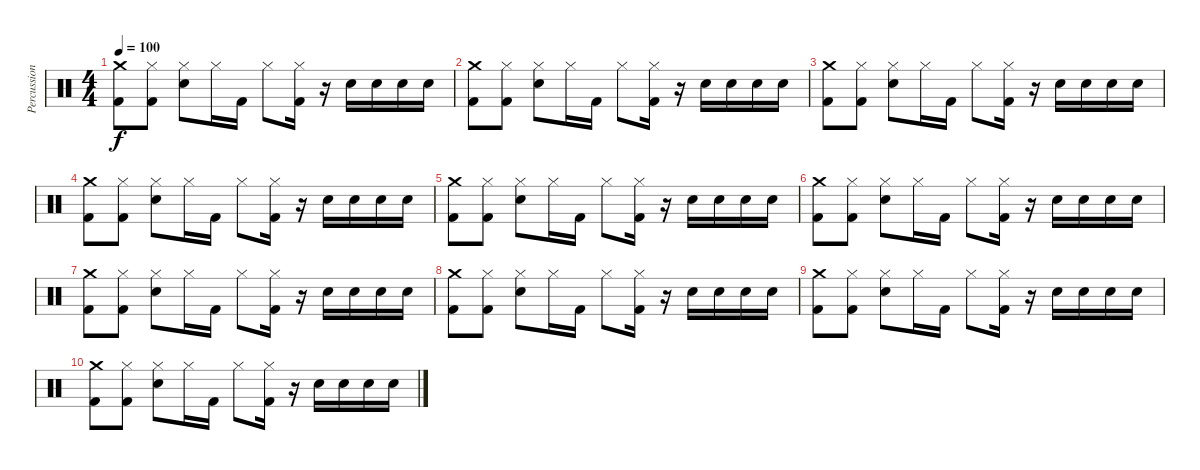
\track ("Percussion" "Percussion") {instrument percussion}
\staff {score}
\articulation defaults
\ts (4 4)
\tempo 100
\clef neutral
\ks c
("Crash medium (hit)" "Kick (hit) 2").8{dy f} ("Hi-Hat (closed)" "Kick (hit) 2").8 ("Hi-Hat (closed)" "Snare (hit) 2").8 "Hi-Hat (closed)".16 "Kick (hit) 2".16 "Hi-Hat (closed)".8 ("Hi-Hat (closed)" "Kick (hit) 2").16 r.16 "Snare (hit) 2".16 "Snare (hit) 2".16 "Snare (hit) 2".16 "Snare (hit) 2".16 |
("Crash medium (hit)" "Kick (hit) 2").8 ("Hi-Hat (closed)" "Kick (hit) 2").8 ("Hi-Hat (closed)" "Snare (hit) 2").8 "Hi-Hat (closed)".16 "Kick (hit) 2".16 "Hi-Hat (closed)".8 ("Hi-Hat (closed)" "Kick (hit) 2").16 r.16 "Snare (hit) 2".16 "Snare (hit) 2".16 "Snare (hit) 2".16 "Snare (hit) 2".16 |
("Crash medium (hit)" "Kick (hit) 2").8 ("Hi-Hat (closed)" "Kick (hit) 2").8 ("Hi-Hat (closed)" "Snare (hit) 2").8 "Hi-Hat (closed)".16 "Kick (hit) 2".16 "Hi-Hat (closed)".8 ("Hi-Hat (closed)" "Kick (hit) 2").16 r.16 "Snare (hit) 2".16 "Snare (hit) 2".16 "Snare (hit) 2".16 "Snare (hit) 2".16 |
("Crash medium (hit)" "Kick (hit) 2").8 ("Hi-Hat (closed)" "Kick (hit) 2").8 ("Hi-Hat (closed)" "Snare (hit) 2").8 "Hi-Hat (closed)".16 "Kick (hit) 2".16 "Hi-Hat (closed)".8 ("Hi-Hat (closed)" "Kick (hit) 2").16 r.16 "Snare (hit) 2".16 "Snare (hit) 2".16 "Snare (hit) 2".16 "Snare (hit) 2".16 |
("Crash medium (hit)" "Kick (hit) 2").8 ("Hi-Hat (closed)" "Kick (hit) 2").8 ("Hi-Hat (closed)" "Snare (hit) 2").8 "Hi-Hat (closed)".16 "Kick (hit) 2".16 "Hi-Hat (closed)".8 ("Hi-Hat (closed)" "Kick (hit) 2").16 r.16 "Snare (hit) 2".16 "Snare (hit) 2".16 "Snare (hit) 2".16 "Snare (hit) 2".16 |
("Crash medium (hit)" "Kick (hit) 2").8 ("Hi-Hat (closed)" "Kick (hit) 2").8 ("Hi-Hat (closed)" "Snare (hit) 2").8 "Hi-Hat (closed)".16 "Kick (hit) 2".16 "Hi-Hat (closed)".8 ("Hi-Hat (closed)" "Kick (hit) 2").16 r.16 "Snare (hit) 2".16 "Snare (hit) 2".16 "Snare (hit) 2".16 "Snare (hit) 2".16 |
("Crash medium (hit)" "Kick (hit) 2").8 ("Hi-Hat (closed)" "Kick (hit) 2").8 ("Hi-Hat (closed)" "Snare (hit) 2").8 "Hi-Hat (closed)".16 "Kick (hit) 2".16 "Hi-Hat (closed)".8 ("Hi-Hat (closed)" "Kick (hit) 2").16 r.16 "Snare (hit) 2".16 "Snare (hit) 2".16 "Snare (hit) 2".16 "Snare (hit) 2".16 |
("Crash medium (hit)" "Kick (hit) 2").8 ("Hi-Hat (closed)" "Kick (hit) 2").8 ("Hi-Hat (closed)" "Snare (hit) 2").8 "Hi-Hat (closed)".16 "Kick (hit) 2".16 "Hi-Hat (closed)".8 ("Hi-Hat (closed)" "Kick (hit) 2").16 r.16 "Snare (hit) 2".16 "Snare (hit) 2".16 "Snare (hit) 2".16 "Snare (hit) 2".16 |
("Crash medium (hit)" "Kick (hit) 2").8 ("Hi-Hat (closed)" "Kick (hit) 2").8 ("Hi-Hat (closed)" "Snare (hit) 2").8 "Hi-Hat (closed)".16 "Kick (hit) 2".16 "Hi-Hat (closed)".8 ("Hi-Hat (closed)" "Kick (hit) 2").16 r.16 "Snare (hit) 2".16 "Snare (hit) 2".16 "Snare (hit) 2".16 "Snare (hit) 2".16 |
("Crash medium (hit)" "Kick (hit) 2").8 ("Hi-Hat (closed)" "Kick (hit) 2").8 ("Hi-Hat (closed)" "Snare (hit) 2").8 "Hi-Hat (closed)".16 "Kick (hit) 2".16 "Hi-Hat (closed)".8 ("Hi-Hat (closed)" "Kick (hit) 2").16 r.16 "Snare (hit) 2".16 "Snare (hit) 2".16 "Snare (hit) 2".16 "Snare (hit) 2".16
